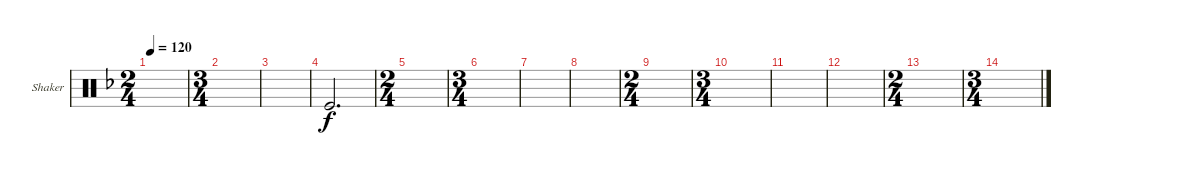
\defaultSystemsLayout 4
\bracketExtendMode groupsimilarinstruments
\firstSystemTrackNameOrientation horizontal
\otherSystemsTrackNameOrientation horizontal
\track ("Shaker" "Shaker") {instrument percussion}
\staff {score}
\articulation defaults
\ts (2 4)
\tempo 120
\clef neutral
\ks f
|
\ts (3 4)
|
|
"Kick (hit)".2{d} |
\ts (2 4)
|
\ts (3 4)
|
|
|
\ts (2 4)
|
\ts (3 4)
|
|
|
\ts (2 4)
|
\ts (3 4)
